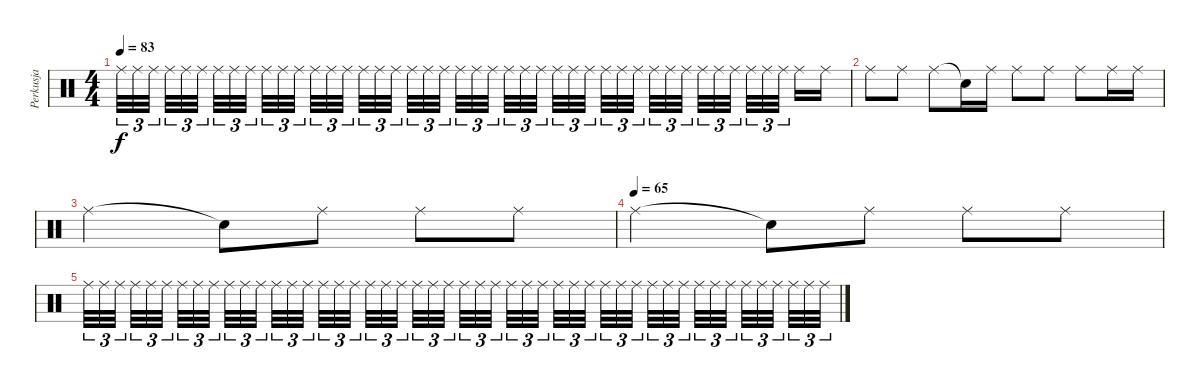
\track ("Perkusja" "Perkusja") {instrument percussion}
\staff {score}
\articulation defaults
\ts (4 4)
\tempo 83
\clef neutral
\ks c "Ride (middle)".32{tu (3 2) dy f} "Ride (middle)".32{tu (3 2)} "Ride (middle)".32{tu (3 2)} "Ride (middle)".32{tu (3 2)} "Ride (middle)".32{tu (3 2)} "Ride (middle)".32{tu (3 2)} "Ride (middle)".32{tu (3 2)} "Ride (middle)".32{tu (3 2)} "Ride (middle)".32{tu (3 2)} "Ride (middle)".32{tu (3 2)} "Ride (middle)".32{tu (3 2)} "Ride (middle)".32{tu (3 2)} "Ride (middle)".32{tu (3 2)} "Ride (middle)".32{tu (3 2)} "Ride (middle)".32{tu (3 2)} "Ride (middle)".32{tu (3 2)} "Ride (middle)".32{tu (3 2)} "Ride (middle)".32{tu (3 2)} "Ride (middle)".32{tu (3 2)} "Ride (middle)".32{tu (3 2)} "Ride (middle)".32{tu (3 2)} "Ride (middle)".32{tu (3 2)} "Ride (middle)".32{tu (3 2)} "Ride (middle)".32{tu (3 2)} "Ride (middle)".32{tu (3 2)} "Ride (middle)".32{tu (3 2)} "Ride (middle)".32{tu (3 2)} "Ride (middle)".32{tu (3 2)} "Ride (middle)".32{tu (3 2)} "Ride (middle)".32{tu (3 2)} "Ride (middle)".32{tu (3 2)} "Ride (middle)".32{tu (3 2)} "Ride (middle)".32{tu (3 2)} "Ride (middle)".32{tu (3 2)} "Ride (middle)".32{tu (3 2)} "Ride (middle)".32{tu (3 2)} "Ride (middle)".32{tu (3 2)} "Ride (middle)".32{tu (3 2)} "Ride (middle)".32{tu (3 2)} "Ride (middle)".32{tu (3 2)} "Ride (middle)".32{tu (3 2)} "Ride (middle)".32{tu (3 2)} "Ride (middle)".16 "Ride (middle)".16
|
"Ride (middle)".8 "Ride (middle)".8 "Ride (middle)".8 "Snare (hit)"{t}.16 "Ride (middle)".16 "Ride (middle)".8 "Ride (middle)".8 "Ride (middle)".8 "Ride (middle)".16 "Ride (middle)".16 |
"Ride (middle)".2 "Snare (hit)"{t}.8 "Ride (middle)".8 "Ride (middle)".8 "Ride (middle)".8 |
\tempo (65)
"Ride (middle)".2 "Snare (hit)"{t}.8 "Ride (middle)".8 "Ride (middle)".8 "Ride (middle)".8 |
"Ride (middle)".32{tu (3 2)} "Ride (middle)".32{tu (3 2)} "Ride (middle)".32{tu (3 2)} "Ride (middle)".32{tu (3 2)} "Ride (middle)".32{tu (3 2)} "Ride (middle)".32{tu (3 2)} "Ride (middle)".32{tu (3 2)} "Ride (middle)".32{tu (3 2)} "Ride (middle)".32{tu (3 2)} "Ride (middle)".32{tu (3 2)} "Ride (middle)".32{tu (3 2)} "Ride (middle)".32{tu (3 2)} "Ride (middle)".32{tu (3 2)} "Ride (middle)".32{tu (3 2)} "Ride (middle)".32{tu (3 2)} "Ride (middle)".32{tu (3 2)} "Ride (middle)".32{tu (3 2)} "Ride (middle)".32{tu (3 2)} "Ride (middle)".32{tu (3 2)} "Ride (middle)".32{tu (3 2)} "Ride (middle)".32{tu (3 2)} "Ride (middle)".32{tu (3 2)} "Ride (middle)".32{tu (3 2)} "Ride (middle)".32{tu (3 2)} "Ride (middle)".32{tu (3 2)} "Ride (middle)".32{tu (3 2)} "Ride (middle)".32{tu (3 2)} "Ride (middle)".32{tu (3 2)} "Ride (middle)".32{tu (3 2)} "Ride (middle)".32{tu (3 2)} "Ride (middle)".32{tu (3 2)} "Ride (middle)".32{tu (3 2)} "Ride (middle)".32{tu (3 2)} "Ride (middle)".32{tu (3 2)} "Ride (middle)".32{tu (3 2)} "Ride (middle)".32{tu (3 2)} "Ride (middle)".32{tu (3 2)} "Ride (middle)".32{tu (3 2)} "Ride (middle)".32{tu (3 2)} "Ride (middle)".32{tu (3 2)} "Ride (middle)".32{tu (3 2)} "Ride (middle)".32{tu (3 2)} "Ride (middle)".32{tu (3 2)} "Ride (middle)".32{tu (3 2)} "Ride (middle)".32{tu (3 2)} "Ride (middle)".32{tu (3 2)} "Ride (middle)".32{tu (3 2)} "Ride (middle)".32{tu (3 2)}
